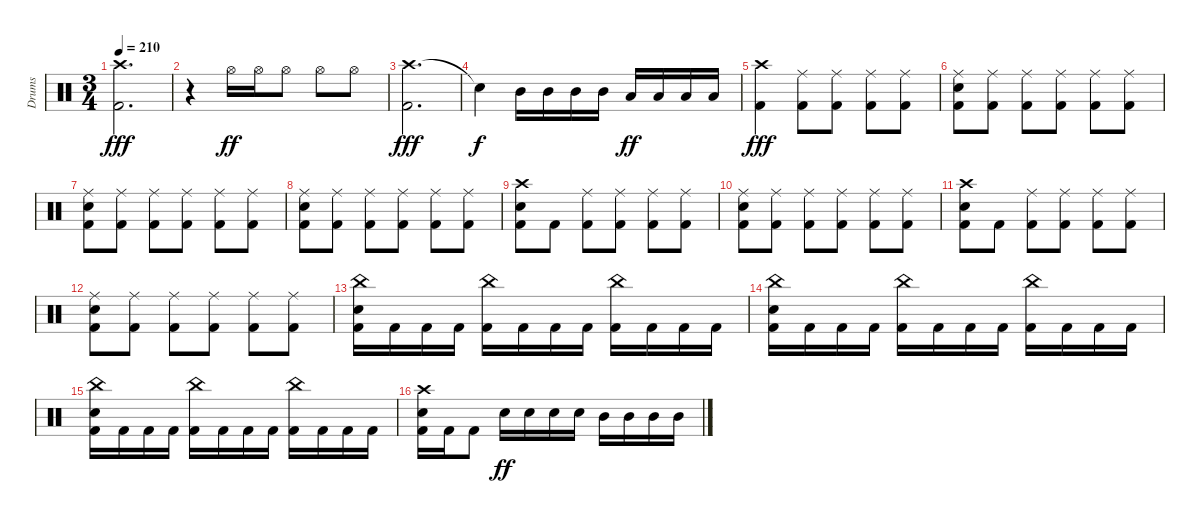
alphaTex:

\track ("Drums" "Drums") {instrument percussion}
\staff {score}
\articulation defaults
\ts (3 4)
\tempo 210
\clef neutral
\ks c
("Crash high (hit)" "Kick (hit) 2").2{d dy fff} |
r.4 "Hi-Hat (open)".16{dy ff} "Hi-Hat (open)".16 "Hi-Hat (open)".8 "Hi-Hat (open)".8 "Hi-Hat (open)".8 |
("Crash high (hit)" "Kick (hit) 2").2{d dy fff} |
"Snare (hit)"{t}.4{dy f} "Mid Tom (hit)".16 "Mid Tom (hit)".16 "Mid Tom (hit)".16 "Mid Tom (hit)".16 "Low Tom (hit)".16{dy ff} "Low Tom (hit)".16 "Low Tom (hit)".16 "Low Tom (hit)".16 |
("Crash high (hit)" "Kick (hit) 2").4{dy fff} ("Ride (middle)" "Kick (hit) 2").8 ("Ride (middle)" "Kick (hit) 2").8 ("Ride (middle)" "Kick (hit) 2").8 ("Ride (middle)" "Kick (hit) 2").8 |
("Ride (middle)" "Snare (hit) 2" "Kick (hit) 2").8 ("Ride (middle)" "Kick (hit) 2").8 ("Ride (middle)" "Kick (hit) 2").8 ("Ride (middle)" "Kick (hit) 2").8 ("Ride (middle)" "Kick (hit) 2").8 ("Ride (middle)" "Kick (hit) 2").8 |
("Ride (middle)" "Snare (hit) 2" "Kick (hit) 2").8 ("Ride (middle)" "Kick (hit) 2").8 ("Ride (middle)" "Kick (hit) 2").8 ("Ride (middle)" "Kick (hit) 2").8 ("Ride (middle)" "Kick (hit) 2").8 ("Ride (middle)" "Kick (hit) 2").8 |
("Ride (middle)" "Snare (hit) 2" "Kick (hit) 2").8 ("Ride (middle)" "Kick (hit) 2").8 ("Ride (middle)" "Kick (hit) 2").8 ("Ride (middle)" "Kick (hit) 2").8 ("Ride (middle)" "Kick (hit) 2").8 ("Ride (middle)" "Kick (hit) 2").8 |
("Crash high (hit)" "Snare (hit) 2" "Kick (hit) 2").8 "Kick (hit) 2".8 ("Ride (middle)" "Kick (hit) 2").8 ("Ride (middle)" "Kick (hit) 2").8 ("Ride (middle)" "Kick (hit) 2").8 ("Ride (middle)" "Kick (hit) 2").8 |
("Ride (middle)" "Snare (hit) 2" "Kick (hit) 2").8 ("Ride (middle)" "Kick (hit) 2").8 ("Ride (middle)" "Kick (hit) 2").8 ("Ride (middle)" "Kick (hit) 2").8 ("Ride (middle)" "Kick (hit) 2").8 ("Ride (middle)" "Kick (hit) 2").8 |
("Crash high (hit)" "Snare (hit) 2" "Kick (hit) 2").8 "Kick (hit) 2".8 ("Ride (middle)" "Kick (hit) 2").8 ("Ride (middle)" "Kick (hit) 2").8 ("Ride (middle)" "Kick (hit) 2").8 ("Ride (middle)" "Kick (hit) 2").8 |
("Ride (middle)" "Snare (hit) 2" "Kick (hit) 2").8 ("Ride (middle)" "Kick (hit) 2").8 ("Ride (middle)" "Kick (hit) 2").8 ("Ride (middle)" "Kick (hit) 2").8 ("Ride (middle)" "Kick (hit) 2").8 ("Ride (middle)" "Kick (hit) 2").8 |
("China (hit)" "Snare (hit) 2" "Kick (hit) 2").16 "Kick (hit) 2".16 "Kick (hit) 2".16 "Kick (hit) 2".16 ("China (hit)" "Kick (hit) 2").16 "Kick (hit) 2".16 "Kick (hit) 2".16 "Kick (hit) 2".16 ("China (hit)" "Kick (hit) 2").16 "Kick (hit) 2".16 "Kick (hit) 2".16 "Kick (hit) 2".16 |
("China (hit)" "Snare (hit) 2" "Kick (hit) 2").16 "Kick (hit) 2".16 "Kick (hit) 2".16 "Kick (hit) 2".16 ("China (hit)" "Kick (hit) 2").16 "Kick (hit) 2".16 "Kick (hit) 2".16 "Kick (hit) 2".16 ("China (hit)" "Kick (hit) 2").16 "Kick (hit) 2".16 "Kick (hit) 2".16 "Kick (hit) 2".16 |
("China (hit)" "Snare (hit) 2" "Kick (hit) 2").16 "Kick (hit) 2".16 "Kick (hit) 2".16 "Kick (hit) 2".16 ("China (hit)" "Kick (hit) 2").16 "Kick (hit) 2".16 "Kick (hit) 2".16 "Kick (hit) 2".16 ("China (hit)" "Kick (hit) 2").16 "Kick (hit) 2".16 "Kick (hit) 2".16 "Kick (hit) 2".16 |
("Crash high (hit)" "Snare (hit) 2" "Kick (hit) 2").16 "Kick (hit) 2".16 "Kick (hit) 2".8 "Snare (hit) 2".16{dy ff} "Snare (hit) 2".16 "Snare (hit) 2".16 "Snare (hit) 2".16 "Mid Tom (hit)".16 "Mid Tom (hit)".16 "Mid Tom (hit)".16 "Mid Tom (hit)".16
